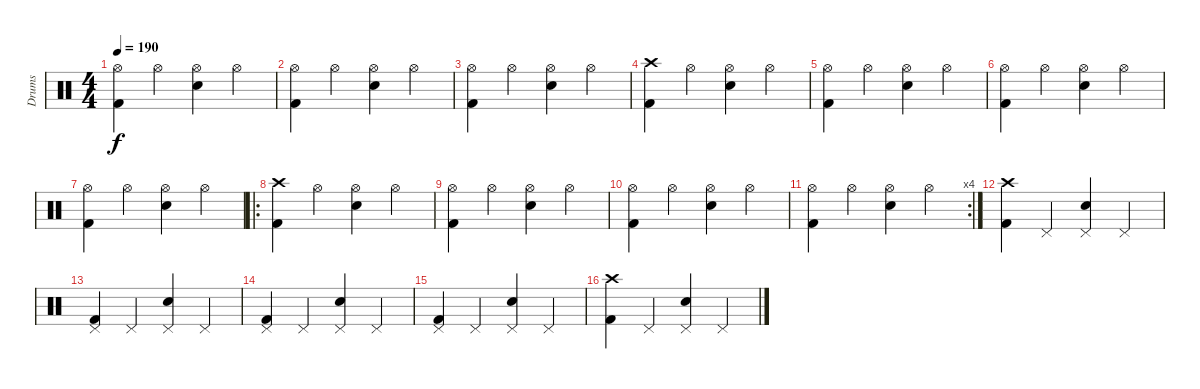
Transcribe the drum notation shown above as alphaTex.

\track ("Drums" "Drums") {instrument percussion}
\staff {score}
\articulation defaults
\ts (4 4)
\tempo 190
\clef neutral
\ks c
("Hi-Hat (open)" "Kick (hit) 2").4{dy f} "Hi-Hat (open)".4 ("Hi-Hat (open)" "Electric Snare (hit)").4 "Hi-Hat (open)".4 |
("Hi-Hat (open)" "Kick (hit) 2").4 "Hi-Hat (open)".4 ("Hi-Hat (open)" "Electric Snare (hit)").4 "Hi-Hat (open)".4 |
("Hi-Hat (open)" "Kick (hit) 2").4 "Hi-Hat (open)".4 ("Hi-Hat (open)" "Electric Snare (hit)").4 "Hi-Hat (open)".4 |
("Crash high (hit)" "Kick (hit) 2").4 "Hi-Hat (open)".4 ("Hi-Hat (open)" "Electric Snare (hit)").4 "Hi-Hat (open)".4 |
("Hi-Hat (open)" "Kick (hit) 2").4 "Hi-Hat (open)".4 ("Hi-Hat (open)" "Electric Snare (hit)").4 "Hi-Hat (open)".4 |
("Hi-Hat (open)" "Kick (hit) 2").4 "Hi-Hat (open)".4 ("Hi-Hat (open)" "Electric Snare (hit)").4 "Hi-Hat (open)".4 |
("Hi-Hat (open)" "Kick (hit) 2").4 "Hi-Hat (open)".4 ("Hi-Hat (open)" "Electric Snare (hit)").4 "Hi-Hat (open)".4 |
\ro
("Crash high (hit)" "Kick (hit) 2").4 "Hi-Hat (open)".4 ("Hi-Hat (open)" "Electric Snare (hit)").4 "Hi-Hat (open)".4 |
("Hi-Hat (open)" "Kick (hit) 2").4 "Hi-Hat (open)".4 ("Hi-Hat (open)" "Electric Snare (hit)").4 "Hi-Hat (open)".4 |
("Hi-Hat (open)" "Kick (hit) 2").4 "Hi-Hat (open)".4 ("Hi-Hat (open)" "Electric Snare (hit)").4 "Hi-Hat (open)".4 |
\rc 4
("Hi-Hat (open)" "Kick (hit) 2").4 "Hi-Hat (open)".4 ("Hi-Hat (open)" "Electric Snare (hit)").4 "Hi-Hat (open)".4 |
("Crash high (hit)" "Kick (hit) 2").4 "Pedal Hi-Hat (hit)".4 ("Pedal Hi-Hat (hit)" "Electric Snare (hit)").4 "Pedal Hi-Hat (hit)".4 |
("Pedal Hi-Hat (hit)" "Kick (hit) 2").4 "Pedal Hi-Hat (hit)".4 ("Pedal Hi-Hat (hit)" "Electric Snare (hit)").4 "Pedal Hi-Hat (hit)".4 |
("Pedal Hi-Hat (hit)" "Kick (hit) 2").4 "Pedal Hi-Hat (hit)".4 ("Pedal Hi-Hat (hit)" "Electric Snare (hit)").4 "Pedal Hi-Hat (hit)".4 |
("Pedal Hi-Hat (hit)" "Kick (hit) 2").4 "Pedal Hi-Hat (hit)".4 ("Pedal Hi-Hat (hit)" "Electric Snare (hit)").4 "Pedal Hi-Hat (hit)".4 |
("Crash high (hit)" "Kick (hit) 2").4 "Pedal Hi-Hat (hit)".4 ("Pedal Hi-Hat (hit)" "Electric Snare (hit)").4 "Pedal Hi-Hat (hit)".4
